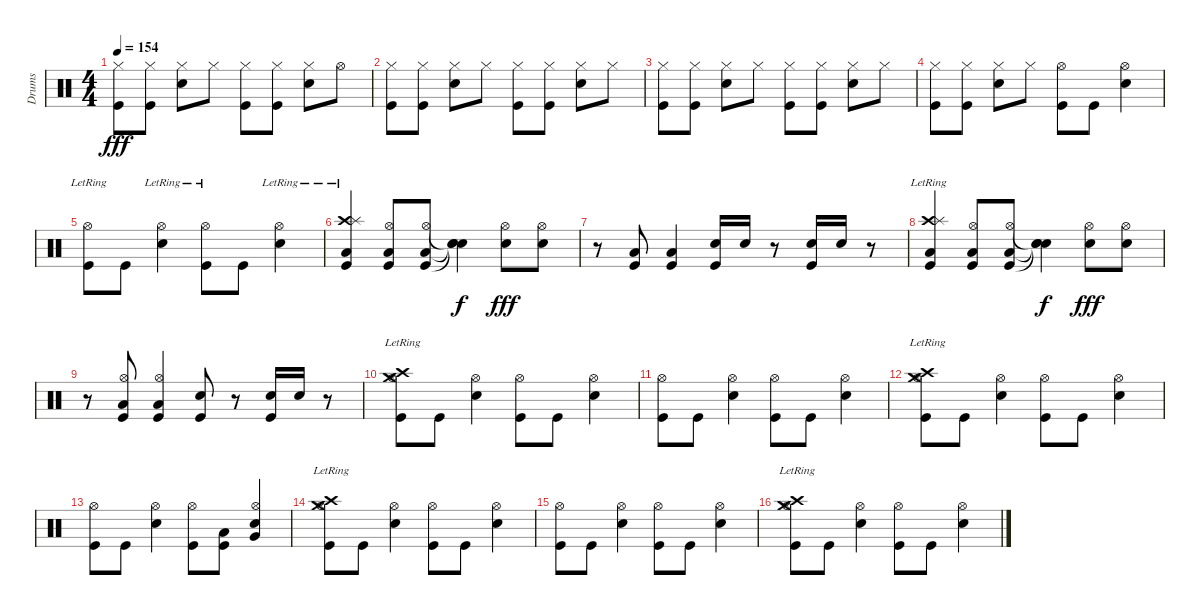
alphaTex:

\track ("Drums" "Drums") {instrument percussion}
\staff {score}
\articulation defaults
\ts (4 4)
\tempo 154
\clef neutral
\ks c
("Hi-Hat (closed)" "Kick (hit)").8{dy fff} ("Hi-Hat (closed)" "Kick (hit)").8 ("Hi-Hat (closed)" "Snare (hit) 2").8 "Hi-Hat (closed)".8 ("Hi-Hat (closed)" "Kick (hit)").8 ("Hi-Hat (closed)" "Kick (hit)").8 ("Hi-Hat (closed)" "Snare (hit) 2").8 "Hi-Hat (open)".8 |
("Hi-Hat (closed)" "Kick (hit)").8 ("Hi-Hat (closed)" "Kick (hit)").8 ("Hi-Hat (closed)" "Snare (hit) 2").8 "Hi-Hat (closed)".8 ("Hi-Hat (closed)" "Kick (hit)").8 ("Hi-Hat (closed)" "Kick (hit)").8 ("Hi-Hat (closed)" "Snare (hit) 2").8 "Hi-Hat (closed)".8 |
("Hi-Hat (closed)" "Kick (hit)").8 ("Hi-Hat (closed)" "Kick (hit)").8 ("Hi-Hat (closed)" "Snare (hit) 2").8 "Hi-Hat (closed)".8 ("Hi-Hat (closed)" "Kick (hit)").8 ("Hi-Hat (closed)" "Kick (hit)").8 ("Hi-Hat (closed)" "Snare (hit) 2").8 "Hi-Hat (closed)".8 |
("Hi-Hat (closed)" "Kick (hit)").8 ("Hi-Hat (closed)" "Kick (hit)").8 ("Hi-Hat (closed)" "Snare (hit) 2").8 "Hi-Hat (closed)".8 ("Hi-Hat (open)" "Kick (hit)").8 "Kick (hit)".8 ("Hi-Hat (open)" "Snare (hit) 2").4 |
("Hi-Hat (open)"{lr} "Kick (hit)").8 "Kick (hit)".8 ("Hi-Hat (open)"{lr} "Snare (hit) 2").4 ("Hi-Hat (open)"{lr} "Kick (hit)").8 "Kick (hit)".8 ("Hi-Hat (open)"{lr} "Snare (hit) 2").4 |
("Crash high (hit)"{lr} "Splash (hit)"{lr} "Low Tom (hit)"{lr} "Kick (hit)"{lr}).4 ("Hi-Hat (open)" "Low Tom (hit)" "Kick (hit)").8 ("Hi-Hat (open)" "Low Tom (hit)" "Kick (hit)").8 ("Snare (hit)"{t} "Snare (hit)"{t} "Snare (hit)"{t}).4{dy f} ("Hi-Hat (open)" "Snare (hit) 2").8{dy fff} ("Hi-Hat (open)" "Snare (hit) 2").8 |
r.8 ("Low Tom (hit)" "Kick (hit)").8 ("Low Tom (hit)" "Kick (hit)").4 ("Snare (hit) 2" "Kick (hit)").16 "Snare (hit) 2".16 r.8 ("Snare (hit) 2" "Kick (hit)").16 "Snare (hit) 2".16 r.8 |
("Crash high (hit)"{lr} "Splash (hit)"{lr} "Low Tom (hit)"{lr} "Kick (hit)"{lr}).4 ("Hi-Hat (open)" "Low Tom (hit)" "Kick (hit)").8 ("Hi-Hat (open)" "Low Tom (hit)" "Kick (hit)").8 ("Snare (hit)"{t} "Snare (hit)"{t} "Snare (hit)"{t}).4{dy f} ("Hi-Hat (open)" "Snare (hit) 2").8{dy fff} ("Hi-Hat (open)" "Snare (hit) 2").8 |
r.8 ("Hi-Hat (open)" "Low Tom (hit)" "Kick (hit)").8 ("Hi-Hat (open)" "Low Tom (hit)" "Kick (hit)").4 ("Snare (hit) 2" "Kick (hit)").8 r.8 ("Snare (hit) 2" "Kick (hit)").16 "Snare (hit) 2".16 r.8 |
("Crash high (hit)"{lr} "Hi-Hat (open)" "Crash medium (hit)"{lr} "Kick (hit)").8 "Kick (hit)".8 ("Hi-Hat (open)" "Snare (hit) 2").4 ("Hi-Hat (open)" "Kick (hit)").8 "Kick (hit)".8 ("Hi-Hat (open)" "Snare (hit) 2").4 |
("Hi-Hat (open)" "Kick (hit)").8 "Kick (hit)".8 ("Hi-Hat (open)" "Snare (hit) 2").4 ("Hi-Hat (open)" "Kick (hit)").8 "Kick (hit)".8 ("Hi-Hat (open)" "Snare (hit) 2").4 |
("Crash high (hit)"{lr} "Hi-Hat (open)" "Crash medium (hit)"{lr} "Kick (hit)").8 "Kick (hit)".8 ("Hi-Hat (open)" "Snare (hit) 2").4 ("Hi-Hat (open)" "Kick (hit)").8 "Kick (hit)".8 ("Hi-Hat (open)" "Snare (hit) 2").4 |
("Hi-Hat (open)" "Kick (hit)").8 "Kick (hit)".8 ("Hi-Hat (open)" "Snare (hit) 2").4 ("Hi-Hat (open)" "Kick (hit)").8 ("Low Tom (hit)" "Kick (hit)").8 ("Hi-Hat (open)" "Very Low Tom (hit)" "Snare (hit) 2").4 |
("Crash high (hit)"{lr} "Hi-Hat (open)" "Crash medium (hit)"{lr} "Kick (hit)").8 "Kick (hit)".8 ("Hi-Hat (open)" "Snare (hit) 2").4 ("Hi-Hat (open)" "Kick (hit)").8 "Kick (hit)".8 ("Hi-Hat (open)" "Snare (hit) 2").4 |
("Hi-Hat (open)" "Kick (hit)").8 "Kick (hit)".8 ("Hi-Hat (open)" "Snare (hit) 2").4 ("Hi-Hat (open)" "Kick (hit)").8 "Kick (hit)".8 ("Hi-Hat (open)" "Snare (hit) 2").4 |
("Crash high (hit)"{lr} "Hi-Hat (open)" "Crash medium (hit)"{lr} "Kick (hit)").8 "Kick (hit)".8 ("Hi-Hat (open)" "Snare (hit) 2").4 ("Hi-Hat (open)" "Kick (hit)").8 "Kick (hit)".8 ("Hi-Hat (open)" "Snare (hit) 2").4
